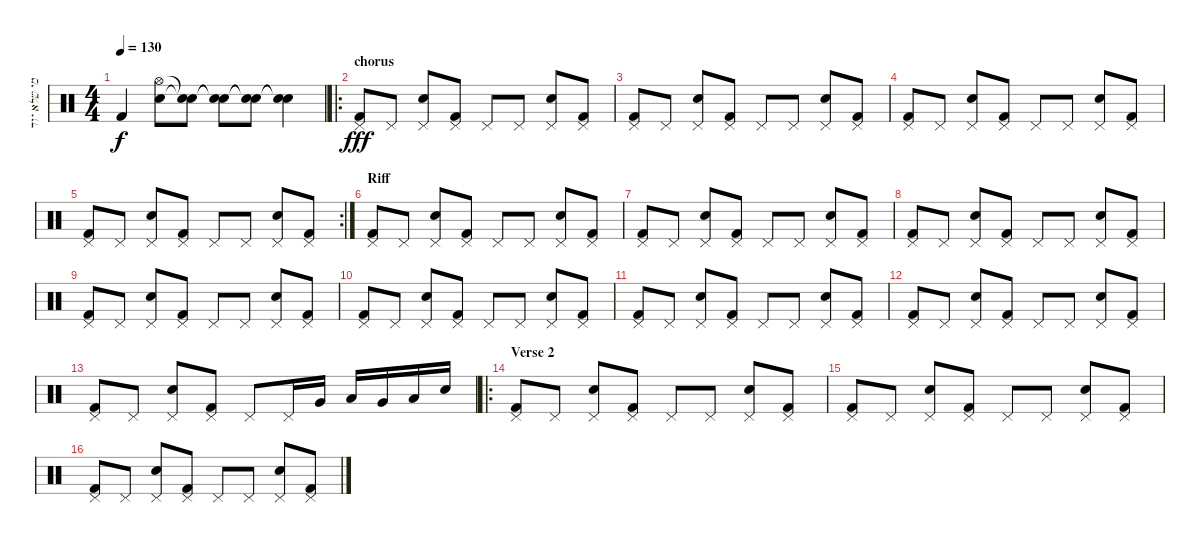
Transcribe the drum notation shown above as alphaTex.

\track ("מי שלא יודע עברית סתם הומו" "מי שלא יוד") {instrument percussion}
\staff {score}
\articulation defaults
\ts (4 4)
\tempo 130
\clef neutral
\ks c "Kick (hit) 2".4{dy f}
("Hi-Hat (open)" "Electric Snare (hit)").8 ("Snare (hit)"{t} "Snare (hit)"{t}).8 ("Snare (hit)"{t} "Snare (hit)"{t}).8 ("Snare (hit)"{t} "Snare (hit)"{t}).8 ("Snare (hit)"{t} "Snare (hit)"{t}).4 |
\ro
\section ("" "chorus")
("Pedal Hi-Hat (hit)" "Kick (hit) 2").8{dy fff} "Pedal Hi-Hat (hit)".8 ("Pedal Hi-Hat (hit)" "Snare (hit) 2").8 ("Pedal Hi-Hat (hit)" "Kick (hit) 2").8 "Pedal Hi-Hat (hit)".8 "Pedal Hi-Hat (hit)".8 ("Pedal Hi-Hat (hit)" "Snare (hit) 2").8 ("Pedal Hi-Hat (hit)" "Kick (hit) 2").8 |
("Pedal Hi-Hat (hit)" "Kick (hit) 2").8 "Pedal Hi-Hat (hit)".8 ("Pedal Hi-Hat (hit)" "Snare (hit) 2").8 ("Pedal Hi-Hat (hit)" "Kick (hit) 2").8 "Pedal Hi-Hat (hit)".8 "Pedal Hi-Hat (hit)".8 ("Pedal Hi-Hat (hit)" "Snare (hit) 2").8 ("Pedal Hi-Hat (hit)" "Kick (hit) 2").8 |
("Pedal Hi-Hat (hit)" "Kick (hit) 2").8 "Pedal Hi-Hat (hit)".8 ("Pedal Hi-Hat (hit)" "Snare (hit) 2").8 ("Pedal Hi-Hat (hit)" "Kick (hit) 2").8 "Pedal Hi-Hat (hit)".8 "Pedal Hi-Hat (hit)".8 ("Pedal Hi-Hat (hit)" "Snare (hit) 2").8 ("Pedal Hi-Hat (hit)" "Kick (hit) 2").8 |
\rc 2
("Pedal Hi-Hat (hit)" "Kick (hit) 2").8 "Pedal Hi-Hat (hit)".8 ("Pedal Hi-Hat (hit)" "Snare (hit) 2").8 ("Pedal Hi-Hat (hit)" "Kick (hit) 2").8 "Pedal Hi-Hat (hit)".8 "Pedal Hi-Hat (hit)".8 ("Pedal Hi-Hat (hit)" "Snare (hit) 2").8 ("Pedal Hi-Hat (hit)" "Kick (hit) 2").8 |
\section ("" "Riff")
("Pedal Hi-Hat (hit)" "Kick (hit) 2").8 "Pedal Hi-Hat (hit)".8 ("Pedal Hi-Hat (hit)" "Snare (hit) 2").8 ("Pedal Hi-Hat (hit)" "Kick (hit) 2").8 "Pedal Hi-Hat (hit)".8 "Pedal Hi-Hat (hit)".8 ("Pedal Hi-Hat (hit)" "Snare (hit) 2").8 ("Pedal Hi-Hat (hit)" "Kick (hit) 2").8 |
("Pedal Hi-Hat (hit)" "Kick (hit) 2").8 "Pedal Hi-Hat (hit)".8 ("Pedal Hi-Hat (hit)" "Snare (hit) 2").8 ("Pedal Hi-Hat (hit)" "Kick (hit) 2").8 "Pedal Hi-Hat (hit)".8 "Pedal Hi-Hat (hit)".8 ("Pedal Hi-Hat (hit)" "Snare (hit) 2").8 ("Pedal Hi-Hat (hit)" "Kick (hit) 2").8 |
("Pedal Hi-Hat (hit)" "Kick (hit) 2").8 "Pedal Hi-Hat (hit)".8 ("Pedal Hi-Hat (hit)" "Snare (hit) 2").8 ("Pedal Hi-Hat (hit)" "Kick (hit) 2").8 "Pedal Hi-Hat (hit)".8 "Pedal Hi-Hat (hit)".8 ("Pedal Hi-Hat (hit)" "Snare (hit) 2").8 ("Pedal Hi-Hat (hit)" "Kick (hit) 2").8 |
("Pedal Hi-Hat (hit)" "Kick (hit) 2").8 "Pedal Hi-Hat (hit)".8 ("Pedal Hi-Hat (hit)" "Snare (hit) 2").8 ("Pedal Hi-Hat (hit)" "Kick (hit) 2").8 "Pedal Hi-Hat (hit)".8 "Pedal Hi-Hat (hit)".8 ("Pedal Hi-Hat (hit)" "Snare (hit) 2").8 ("Pedal Hi-Hat (hit)" "Kick (hit) 2").8 |
("Pedal Hi-Hat (hit)" "Kick (hit) 2").8 "Pedal Hi-Hat (hit)".8 ("Pedal Hi-Hat (hit)" "Snare (hit) 2").8 ("Pedal Hi-Hat (hit)" "Kick (hit) 2").8 "Pedal Hi-Hat (hit)".8 "Pedal Hi-Hat (hit)".8 ("Pedal Hi-Hat (hit)" "Snare (hit) 2").8 ("Pedal Hi-Hat (hit)" "Kick (hit) 2").8 |
("Pedal Hi-Hat (hit)" "Kick (hit) 2").8 "Pedal Hi-Hat (hit)".8 ("Pedal Hi-Hat (hit)" "Snare (hit) 2").8 ("Pedal Hi-Hat (hit)" "Kick (hit) 2").8 "Pedal Hi-Hat (hit)".8 "Pedal Hi-Hat (hit)".8 ("Pedal Hi-Hat (hit)" "Snare (hit) 2").8 ("Pedal Hi-Hat (hit)" "Kick (hit) 2").8 |
("Pedal Hi-Hat (hit)" "Kick (hit) 2").8 "Pedal Hi-Hat (hit)".8 ("Pedal Hi-Hat (hit)" "Snare (hit) 2").8 ("Pedal Hi-Hat (hit)" "Kick (hit) 2").8 "Pedal Hi-Hat (hit)".8 "Pedal Hi-Hat (hit)".8 ("Pedal Hi-Hat (hit)" "Snare (hit) 2").8 ("Pedal Hi-Hat (hit)" "Kick (hit) 2").8 |
("Pedal Hi-Hat (hit)" "Kick (hit) 2").8 "Pedal Hi-Hat (hit)".8 ("Pedal Hi-Hat (hit)" "Snare (hit) 2").8 ("Pedal Hi-Hat (hit)" "Kick (hit) 2").8 "Pedal Hi-Hat (hit)".8 "Pedal Hi-Hat (hit)".16 "Very Low Tom (hit)".16 "Low Tom (hit)".16 "Very Low Tom (hit)".16 "Low Floor Tom (hit)".16 "Electric Snare (hit)".16 |
\ro
\section ("" "Verse 2")
("Pedal Hi-Hat (hit)" "Kick (hit) 2").8 "Pedal Hi-Hat (hit)".8 ("Pedal Hi-Hat (hit)" "Snare (hit) 2").8 ("Pedal Hi-Hat (hit)" "Kick (hit) 2").8 "Pedal Hi-Hat (hit)".8 "Pedal Hi-Hat (hit)".8 ("Pedal Hi-Hat (hit)" "Snare (hit) 2").8 ("Pedal Hi-Hat (hit)" "Kick (hit) 2").8 |
("Pedal Hi-Hat (hit)" "Kick (hit) 2").8 "Pedal Hi-Hat (hit)".8 ("Pedal Hi-Hat (hit)" "Snare (hit) 2").8 ("Pedal Hi-Hat (hit)" "Kick (hit) 2").8 "Pedal Hi-Hat (hit)".8 "Pedal Hi-Hat (hit)".8 ("Pedal Hi-Hat (hit)" "Snare (hit) 2").8 ("Pedal Hi-Hat (hit)" "Kick (hit) 2").8 |
("Pedal Hi-Hat (hit)" "Kick (hit) 2").8 "Pedal Hi-Hat (hit)".8 ("Pedal Hi-Hat (hit)" "Snare (hit) 2").8 ("Pedal Hi-Hat (hit)" "Kick (hit) 2").8 "Pedal Hi-Hat (hit)".8 "Pedal Hi-Hat (hit)".8 ("Pedal Hi-Hat (hit)" "Snare (hit) 2").8 ("Pedal Hi-Hat (hit)" "Kick (hit) 2").8
